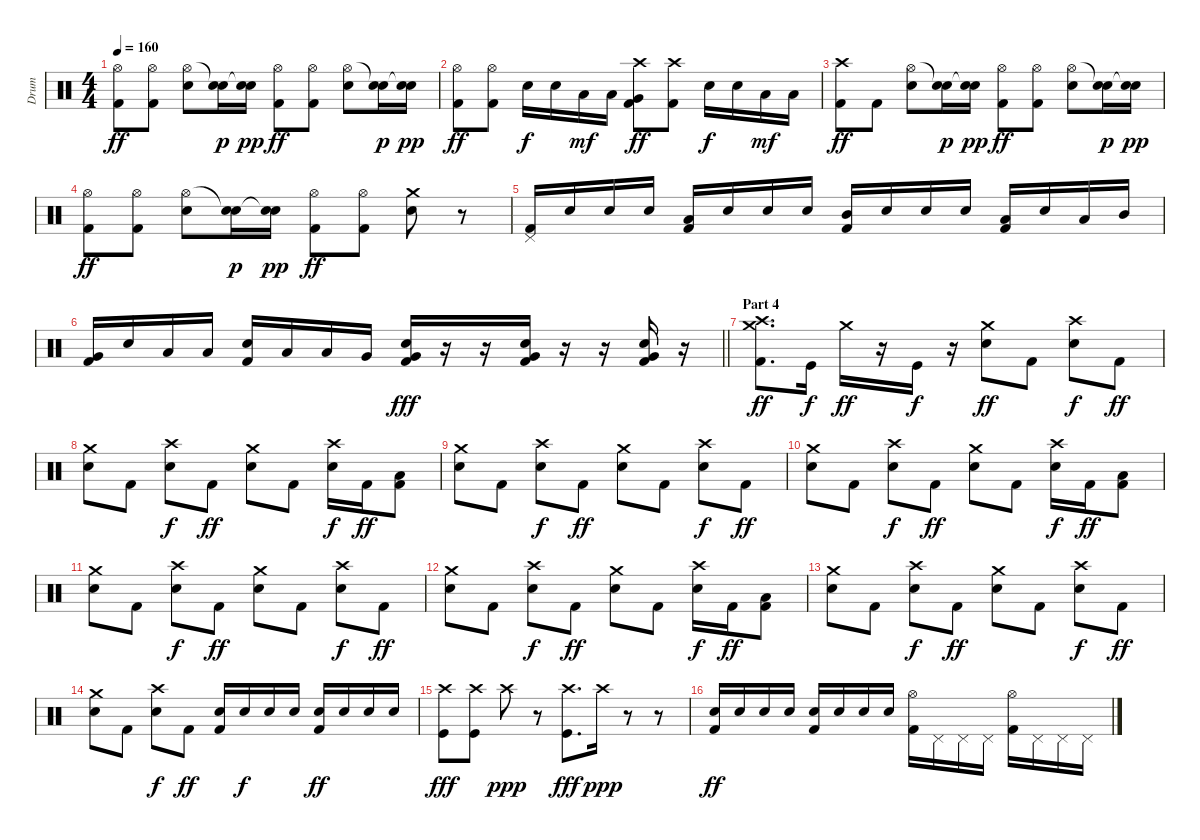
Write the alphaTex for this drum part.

\track ("Drum" "Drum") {instrument percussion}
\staff {score}
\articulation defaults
\ts (4 4)
\tempo 160
\clef neutral
\ks c
("Hi-Hat (open)" "Kick (hit) 2").8{dy ff} ("Hi-Hat (open)" "Kick (hit) 2").8 ("Electric Snare (hit)" "Hi-Hat (open)").8 ("Electric Snare (hit)" "Snare (hit)"{t}).16{dy p} ("Electric Snare (hit)" "Snare (hit)"{t}).16{dy pp} ("Hi-Hat (open)" "Kick (hit) 2").8{dy ff} ("Hi-Hat (open)" "Kick (hit) 2").8 ("Electric Snare (hit)" "Hi-Hat (open)").8 ("Electric Snare (hit)" "Snare (hit)"{t}).16{dy p} ("Electric Snare (hit)" "Snare (hit)"{t}).16{dy pp} |
("Hi-Hat (open)" "Kick (hit) 2").8{dy ff} ("Hi-Hat (open)" "Kick (hit) 2").8 "Electric Snare (hit)".16{dy f} "Electric Snare (hit)".16 "Low Tom (hit)".16{dy mf} "Low Tom (hit)".16 ("Crash high (hit)" "Very Low Tom (hit)" "Kick (hit) 2").8{dy ff} ("Crash high (hit)" "Kick (hit) 2").8 "Electric Snare (hit)".16{dy f} "Electric Snare (hit)".16 "Low Tom (hit)".16{dy mf} "Low Tom (hit)".16 |
("Crash high (hit)" "Kick (hit) 2").8{dy ff} "Kick (hit) 2".8 ("Electric Snare (hit)" "Hi-Hat (open)").8 ("Electric Snare (hit)" "Snare (hit)"{t}).16{dy p} ("Electric Snare (hit)" "Snare (hit)"{t}).16{dy pp} ("Hi-Hat (open)" "Kick (hit) 2").8{dy ff} ("Hi-Hat (open)" "Kick (hit) 2").8 ("Electric Snare (hit)" "Hi-Hat (open)").8 ("Electric Snare (hit)" "Snare (hit)"{t}).16{dy p} ("Electric Snare (hit)" "Snare (hit)"{t}).16{dy pp} |
("Hi-Hat (open)" "Kick (hit) 2").8{dy ff} ("Hi-Hat (open)" "Kick (hit) 2").8 ("Electric Snare (hit)" "Hi-Hat (open)").8 ("Electric Snare (hit)" "Snare (hit)"{t}).16{dy p} ("Electric Snare (hit)" "Snare (hit)"{t}).16{dy pp} ("Hi-Hat (open)" "Kick (hit) 2").8{dy ff} ("Hi-Hat (open)" "Kick (hit) 2").8 ("Crash medium (hit)" "Electric Snare (hit)").8 r.8 |
("Pedal Hi-Hat (hit)" "Kick (hit) 2").16 "Electric Snare (hit)".16 "Electric Snare (hit)".16 "Electric Snare (hit)".16 ("Low Tom (hit)" "Kick (hit) 2").16 "Electric Snare (hit)".16 "Electric Snare (hit)".16 "Electric Snare (hit)".16 ("Mid Tom (hit)" "Kick (hit) 2").16 "Electric Snare (hit)".16 "Electric Snare (hit)".16 "Electric Snare (hit)".16 ("Low Tom (hit)" "Kick (hit) 2").16 "Electric Snare (hit)".16 "Low Tom (hit)".16 "Mid Tom (hit)".16 |
\barLineRight lightlight
("Very Low Tom (hit)" "Kick (hit) 2").16 "Electric Snare (hit)".16 "Low Tom (hit)".16 "Low Tom (hit)".16 ("Electric Snare (hit)" "Kick (hit) 2").16 "Low Tom (hit)".16 "Low Tom (hit)".16 "Very Low Tom (hit)".16 ("Very Low Tom (hit)" "Electric Snare (hit)" "Kick (hit) 2").16{dy fff} r.16 r.16 ("Very Low Tom (hit)" "Electric Snare (hit)" "Kick (hit) 2").16 r.16 r.16 ("Very Low Tom (hit)" "Electric Snare (hit)" "Kick (hit) 2").16 r.16 |
\section ("" "Part 4")
("Crash medium (hit)" "Crash high (hit)" "Kick (hit) 2").8{d dy ff} "Kick (hit)".16{dy f} "Crash medium (hit)".16{dy ff} r.16 "Kick (hit)".16{dy f} r.16 ("Crash medium (hit)" "Electric Snare (hit)").8{dy ff} "Kick (hit) 2".8 ("Crash high (hit)" "Electric Snare (hit)").8{dy f} "Kick (hit) 2".8{dy ff} |
("Crash medium (hit)" "Electric Snare (hit)").8 "Kick (hit) 2".8 ("Crash high (hit)" "Electric Snare (hit)").8{dy f} "Kick (hit) 2".8{dy ff} ("Crash medium (hit)" "Electric Snare (hit)").8 "Kick (hit) 2".8 ("Crash high (hit)" "Electric Snare (hit)").16{dy f} "Kick (hit) 2".16{dy ff} ("Low Tom (hit)" "Kick (hit) 2").8 |
("Crash medium (hit)" "Electric Snare (hit)").8 "Kick (hit) 2".8 ("Crash high (hit)" "Electric Snare (hit)").8{dy f} "Kick (hit) 2".8{dy ff} ("Crash medium (hit)" "Electric Snare (hit)").8 "Kick (hit) 2".8 ("Crash high (hit)" "Electric Snare (hit)").8{dy f} "Kick (hit) 2".8{dy ff} |
("Crash medium (hit)" "Electric Snare (hit)").8 "Kick (hit) 2".8 ("Crash high (hit)" "Electric Snare (hit)").8{dy f} "Kick (hit) 2".8{dy ff} ("Crash medium (hit)" "Electric Snare (hit)").8 "Kick (hit) 2".8 ("Crash high (hit)" "Electric Snare (hit)").16{dy f} "Kick (hit) 2".16{dy ff} ("Low Tom (hit)" "Kick (hit) 2").8 |
("Crash medium (hit)" "Electric Snare (hit)").8 "Kick (hit) 2".8 ("Crash high (hit)" "Electric Snare (hit)").8{dy f} "Kick (hit) 2".8{dy ff} ("Crash medium (hit)" "Electric Snare (hit)").8 "Kick (hit) 2".8 ("Crash high (hit)" "Electric Snare (hit)").8{dy f} "Kick (hit) 2".8{dy ff} |
("Crash medium (hit)" "Electric Snare (hit)").8 "Kick (hit) 2".8 ("Crash high (hit)" "Electric Snare (hit)").8{dy f} "Kick (hit) 2".8{dy ff} ("Crash medium (hit)" "Electric Snare (hit)").8 "Kick (hit) 2".8 ("Crash high (hit)" "Electric Snare (hit)").16{dy f} "Kick (hit) 2".16{dy ff} ("Low Tom (hit)" "Kick (hit) 2").8 |
("Crash medium (hit)" "Electric Snare (hit)").8 "Kick (hit) 2".8 ("Crash high (hit)" "Electric Snare (hit)").8{dy f} "Kick (hit) 2".8{dy ff} ("Crash medium (hit)" "Electric Snare (hit)").8 "Kick (hit) 2".8 ("Crash high (hit)" "Electric Snare (hit)").8{dy f} "Kick (hit) 2".8{dy ff} |
("Crash medium (hit)" "Electric Snare (hit)").8 "Kick (hit) 2".8 ("Crash high (hit)" "Electric Snare (hit)").8{dy f} "Kick (hit) 2".8{dy ff} ("Electric Snare (hit)" "Kick (hit) 2").16 "Electric Snare (hit)".16{dy f} "Electric Snare (hit)".16 "Electric Snare (hit)".16 ("Electric Snare (hit)" "Kick (hit) 2").16{dy ff} "Electric Snare (hit)".16 "Electric Snare (hit)".16 "Electric Snare (hit)".16 |
("Crash high (hit)" "Kick (hit)").8{dy fff} ("Crash high (hit)" "Kick (hit)").8 "Crash high (hit)".8{dy ppp} r.8 ("Crash high (hit)" "Kick (hit)").8{d dy fff} "Crash high (hit)".16{dy ppp} r.8 r.8 |
("Electric Snare (hit)" "Kick (hit) 2").16{dy ff} "Electric Snare (hit)".16 "Electric Snare (hit)".16 "Electric Snare (hit)".16 ("Electric Snare (hit)" "Kick (hit) 2").16 "Electric Snare (hit)".16 "Electric Snare (hit)".16 "Electric Snare (hit)".16 ("Hi-Hat (open)" "Kick (hit) 2").16 "Pedal Hi-Hat (hit)".16 "Pedal Hi-Hat (hit)".16 "Pedal Hi-Hat (hit)".16 ("Hi-Hat (open)" "Kick (hit) 2").16 "Pedal Hi-Hat (hit)".16 "Pedal Hi-Hat (hit)".16 "Pedal Hi-Hat (hit)".16
